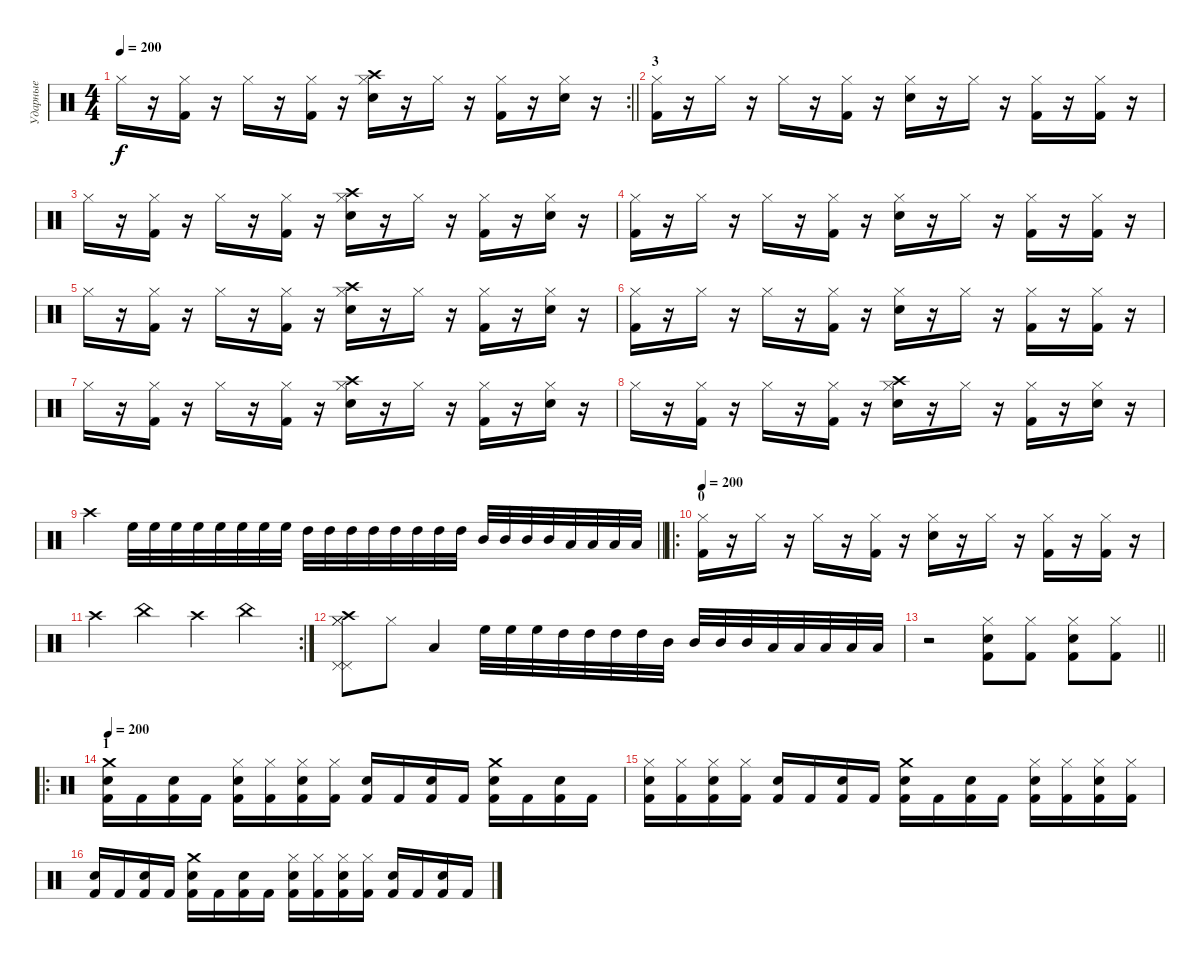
\track ("Ударные" "Ударные") {instrument percussion}
\staff {score}
\articulation defaults
\rc 2
\ts (4 4)
\tempo 200
\clef neutral
\barLineRight lightlight
\ks c "Hi-Hat (closed)".16{dy f}
r.16 ("Hi-Hat (closed)" "Kick (hit) 2").16 r.16 "Hi-Hat (closed)".16 r.16 ("Hi-Hat (closed)" "Kick (hit) 2").16 r.16 ("Hi-Hat (closed)" "Crash high (hit)" "Electric Snare (hit)").16 r.16 "Hi-Hat (closed)".16 r.16 ("Hi-Hat (closed)" "Kick (hit) 2").16 r.16 ("Hi-Hat (closed)" "Electric Snare (hit)").16 r.16 |
\section ("" "3")
("Hi-Hat (closed)" "Kick (hit) 2").16 r.16 "Hi-Hat (closed)".16 r.16 "Hi-Hat (closed)".16 r.16 ("Hi-Hat (closed)" "Kick (hit) 2").16 r.16 ("Hi-Hat (closed)" "Electric Snare (hit)").16 r.16 "Hi-Hat (closed)".16 r.16 ("Hi-Hat (closed)" "Kick (hit) 2").16 r.16 ("Hi-Hat (closed)" "Kick (hit) 2").16 r.16 |
"Hi-Hat (closed)".16 r.16 ("Hi-Hat (closed)" "Kick (hit) 2").16 r.16 "Hi-Hat (closed)".16 r.16 ("Hi-Hat (closed)" "Kick (hit) 2").16 r.16 ("Hi-Hat (closed)" "Crash high (hit)" "Electric Snare (hit)").16 r.16 "Hi-Hat (closed)".16 r.16 ("Hi-Hat (closed)" "Kick (hit) 2").16 r.16 ("Hi-Hat (closed)" "Electric Snare (hit)").16 r.16 |
("Hi-Hat (closed)" "Kick (hit) 2").16 r.16 "Hi-Hat (closed)".16 r.16 "Hi-Hat (closed)".16 r.16 ("Hi-Hat (closed)" "Kick (hit) 2").16 r.16 ("Hi-Hat (closed)" "Electric Snare (hit)").16 r.16 "Hi-Hat (closed)".16 r.16 ("Hi-Hat (closed)" "Kick (hit) 2").16 r.16 ("Hi-Hat (closed)" "Kick (hit) 2").16 r.16 |
"Hi-Hat (closed)".16 r.16 ("Hi-Hat (closed)" "Kick (hit) 2").16 r.16 "Hi-Hat (closed)".16 r.16 ("Hi-Hat (closed)" "Kick (hit) 2").16 r.16 ("Hi-Hat (closed)" "Crash high (hit)" "Electric Snare (hit)").16 r.16 "Hi-Hat (closed)".16 r.16 ("Hi-Hat (closed)" "Kick (hit) 2").16 r.16 ("Hi-Hat (closed)" "Electric Snare (hit)").16 r.16 |
("Hi-Hat (closed)" "Kick (hit) 2").16 r.16 "Hi-Hat (closed)".16 r.16 "Hi-Hat (closed)".16 r.16 ("Hi-Hat (closed)" "Kick (hit) 2").16 r.16 ("Hi-Hat (closed)" "Electric Snare (hit)").16 r.16 "Hi-Hat (closed)".16 r.16 ("Hi-Hat (closed)" "Kick (hit) 2").16 r.16 ("Hi-Hat (closed)" "Kick (hit) 2").16 r.16 |
"Hi-Hat (closed)".16 r.16 ("Hi-Hat (closed)" "Kick (hit) 2").16 r.16 "Hi-Hat (closed)".16 r.16 ("Hi-Hat (closed)" "Kick (hit) 2").16 r.16 ("Hi-Hat (closed)" "Crash high (hit)" "Electric Snare (hit)").16 r.16 "Hi-Hat (closed)".16 r.16 ("Hi-Hat (closed)" "Kick (hit) 2").16 r.16 ("Hi-Hat (closed)" "Electric Snare (hit)").16 r.16 |
"Hi-Hat (closed)".16 r.16 ("Hi-Hat (closed)" "Kick (hit) 2").16 r.16 "Hi-Hat (closed)".16 r.16 ("Hi-Hat (closed)" "Kick (hit) 2").16 r.16 ("Hi-Hat (closed)" "Crash high (hit)" "Electric Snare (hit)").16 r.16 "Hi-Hat (closed)".16 r.16 ("Hi-Hat (closed)" "Kick (hit) 2").16 r.16 ("Hi-Hat (closed)" "Electric Snare (hit)").16 r.16 |
\barLineRight lightlight "Crash high (hit)".4 "High Floor Tom (hit)".32 "High Floor Tom (hit)".32 "High Floor Tom (hit)".32 "High Floor Tom (hit)".32 "High Floor Tom (hit)".32 "High Floor Tom (hit)".32 "High Floor Tom (hit)".32 "High Floor Tom (hit)".32 "High Tom (hit)".32 "High Tom (hit)".32 "High Tom (hit)".32 "High Tom (hit)".32 "High Tom (hit)".32 "High Tom (hit)".32 "High Tom (hit)".32 "High Tom (hit)".32 "Mid Tom (hit)".32 "Mid Tom (hit)".32 "Mid Tom (hit)".32 "Mid Tom (hit)".32 "Low Floor Tom (hit)".32 "Low Floor Tom (hit)".32 "Low Floor Tom (hit)".32 "Low Floor Tom (hit)".32
|
\ro
\section ("" "0")
\tempo 200
("Hi-Hat (closed)" "Kick (hit) 2").16 r.16 "Hi-Hat (closed)".16 r.16 "Hi-Hat (closed)".16 r.16 ("Hi-Hat (closed)" "Kick (hit) 2").16 r.16 ("Hi-Hat (closed)" "Electric Snare (hit)").16 r.16 "Hi-Hat (closed)".16 r.16 ("Hi-Hat (closed)" "Kick (hit) 2").16 r.16 ("Hi-Hat (closed)" "Kick (hit) 2").16 r.16 |
\rc 2 "Crash high (hit)".4 "China (hit)".4 "Crash high (hit)".4 "China (hit)".4
|
("Hi-Hat (closed)" "Hi-Hat (closed)" "Pedal Hi-Hat (hit)" "Pedal Hi-Hat (hit)" "Crash high (hit)").8 "Hi-Hat (closed)".8 "Low Floor Tom (hit)".4 "High Floor Tom (hit)".32 "High Floor Tom (hit)".32 "High Floor Tom (hit)".32 "High Tom (hit)".32 "High Tom (hit)".32 "High Tom (hit)".32 "High Tom (hit)".32 "Mid Tom (hit)".32 "Mid Tom (hit)".32 "Mid Tom (hit)".32 "Mid Tom (hit)".32 "Low Tom (hit)".32 "Low Tom (hit)".32 "Low Tom (hit)".32 "Low Tom (hit)".32 "Low Floor Tom (hit)".32 |
\barLineRight lightlight
r.2 ("Hi-Hat (closed)" "Snare (hit) 2" "Kick (hit) 2").8 ("Hi-Hat (closed)" "Kick (hit) 2").8 ("Hi-Hat (closed)" "Snare (hit) 2" "Kick (hit) 2").8 ("Hi-Hat (closed)" "Kick (hit) 2").8 |
\ro
\section ("" "1")
\tempo 200
("Crash medium (hit)" "Electric Snare (hit)" "Kick (hit) 2").16 "Kick (hit) 2".16 ("Electric Snare (hit)" "Kick (hit) 2").16 "Kick (hit) 2".16 ("Hi-Hat (closed)" "Electric Snare (hit)" "Kick (hit) 2").16 ("Hi-Hat (closed)" "Kick (hit) 2").16 ("Hi-Hat (closed)" "Electric Snare (hit)" "Kick (hit) 2").16 ("Hi-Hat (closed)" "Kick (hit) 2").16 ("Electric Snare (hit)" "Kick (hit) 2").16 "Kick (hit) 2".16 ("Electric Snare (hit)" "Kick (hit) 2").16 "Kick (hit) 2".16 ("Crash medium (hit)" "Electric Snare (hit)" "Kick (hit) 2").16 "Kick (hit) 2".16 ("Electric Snare (hit)" "Kick (hit) 2").16 "Kick (hit) 2".16 |
("Hi-Hat (closed)" "Electric Snare (hit)" "Kick (hit) 2").16 ("Hi-Hat (closed)" "Kick (hit) 2").16 ("Hi-Hat (closed)" "Electric Snare (hit)" "Kick (hit) 2").16 ("Hi-Hat (closed)" "Kick (hit) 2").16 ("Electric Snare (hit)" "Kick (hit) 2").16 "Kick (hit) 2".16 ("Electric Snare (hit)" "Kick (hit) 2").16 "Kick (hit) 2".16 ("Crash medium (hit)" "Electric Snare (hit)" "Kick (hit) 2").16 "Kick (hit) 2".16 ("Electric Snare (hit)" "Kick (hit) 2").16 "Kick (hit) 2".16 ("Hi-Hat (closed)" "Electric Snare (hit)" "Kick (hit) 2").16 ("Hi-Hat (closed)" "Kick (hit) 2").16 ("Hi-Hat (closed)" "Electric Snare (hit)" "Kick (hit) 2").16 ("Hi-Hat (closed)" "Kick (hit) 2").16 |
("Electric Snare (hit)" "Kick (hit) 2").16 "Kick (hit) 2".16 ("Electric Snare (hit)" "Kick (hit) 2").16 "Kick (hit) 2".16 ("Crash medium (hit)" "Electric Snare (hit)" "Kick (hit) 2").16 "Kick (hit) 2".16 ("Electric Snare (hit)" "Kick (hit) 2").16 "Kick (hit) 2".16 ("Hi-Hat (closed)" "Electric Snare (hit)" "Kick (hit) 2").16 ("Hi-Hat (closed)" "Kick (hit) 2").16 ("Hi-Hat (closed)" "Electric Snare (hit)" "Kick (hit) 2").16 ("Hi-Hat (closed)" "Kick (hit) 2").16 ("Electric Snare (hit)" "Kick (hit) 2").16 "Kick (hit) 2".16 ("Electric Snare (hit)" "Kick (hit) 2").16 "Kick (hit) 2".16
